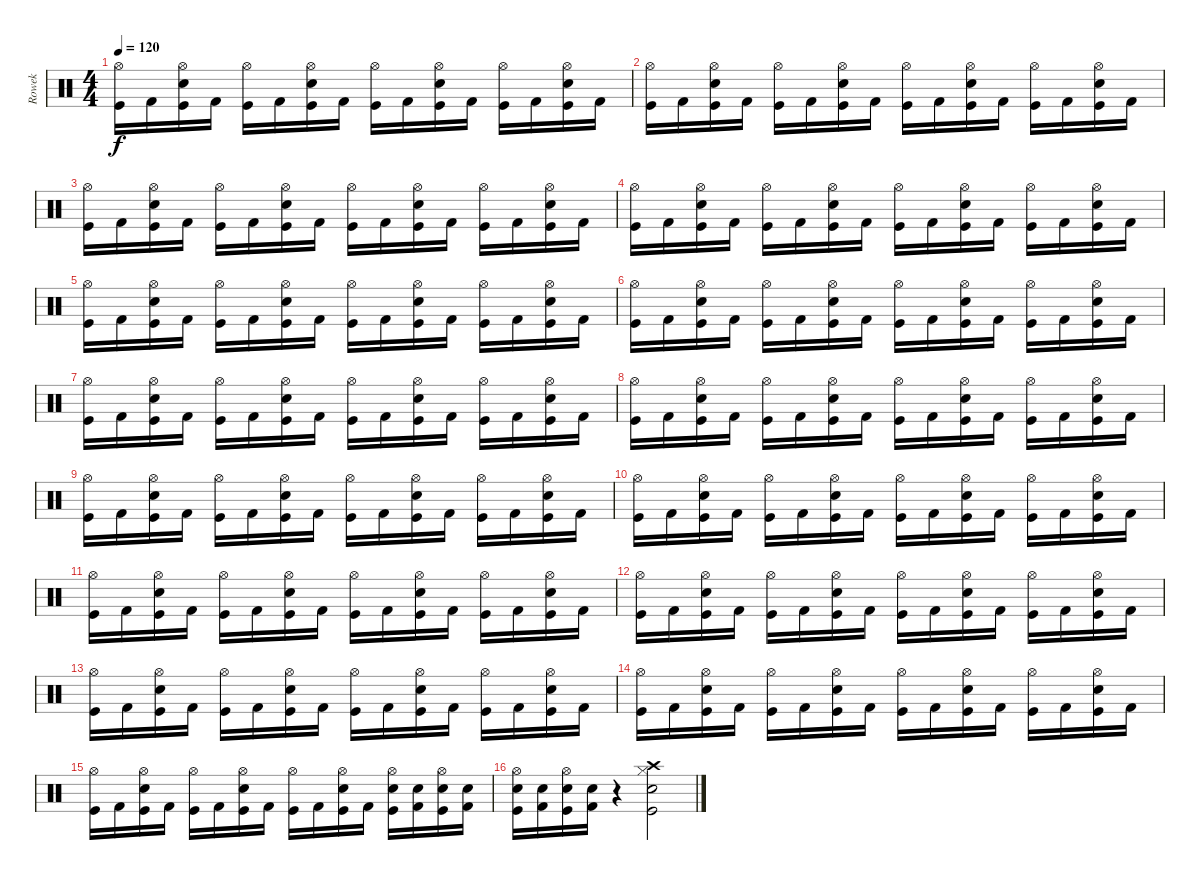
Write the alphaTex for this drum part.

\track ("Rowek" "Rowek") {instrument percussion}
\staff {score}
\articulation defaults
\ts (4 4)
\tempo 120
\clef neutral
\ks c
("Hi-Hat (open)" "Kick (hit)").16{dy f} "Kick (hit) 2".16 ("Hi-Hat (open)" "Snare (hit) 2" "Kick (hit)").16 "Kick (hit) 2".16 ("Hi-Hat (open)" "Kick (hit)").16 "Kick (hit) 2".16 ("Hi-Hat (open)" "Snare (hit) 2" "Kick (hit)").16 "Kick (hit) 2".16 ("Hi-Hat (open)" "Kick (hit)").16 "Kick (hit) 2".16 ("Hi-Hat (open)" "Snare (hit) 2" "Kick (hit)").16 "Kick (hit) 2".16 ("Hi-Hat (open)" "Kick (hit)").16 "Kick (hit) 2".16 ("Hi-Hat (open)" "Snare (hit) 2" "Kick (hit)").16 "Kick (hit) 2".16 |
("Hi-Hat (open)" "Kick (hit)").16 "Kick (hit) 2".16 ("Hi-Hat (open)" "Snare (hit) 2" "Kick (hit)").16 "Kick (hit) 2".16 ("Hi-Hat (open)" "Kick (hit)").16 "Kick (hit) 2".16 ("Hi-Hat (open)" "Snare (hit) 2" "Kick (hit)").16 "Kick (hit) 2".16 ("Hi-Hat (open)" "Kick (hit)").16 "Kick (hit) 2".16 ("Hi-Hat (open)" "Snare (hit) 2" "Kick (hit)").16 "Kick (hit) 2".16 ("Hi-Hat (open)" "Kick (hit)").16 "Kick (hit) 2".16 ("Hi-Hat (open)" "Snare (hit) 2" "Kick (hit)").16 "Kick (hit) 2".16 |
("Hi-Hat (open)" "Kick (hit)").16 "Kick (hit) 2".16 ("Hi-Hat (open)" "Snare (hit) 2" "Kick (hit)").16 "Kick (hit) 2".16 ("Hi-Hat (open)" "Kick (hit)").16 "Kick (hit) 2".16 ("Hi-Hat (open)" "Snare (hit) 2" "Kick (hit)").16 "Kick (hit) 2".16 ("Hi-Hat (open)" "Kick (hit)").16 "Kick (hit) 2".16 ("Hi-Hat (open)" "Snare (hit) 2" "Kick (hit)").16 "Kick (hit) 2".16 ("Hi-Hat (open)" "Kick (hit)").16 "Kick (hit) 2".16 ("Hi-Hat (open)" "Snare (hit) 2" "Kick (hit)").16 "Kick (hit) 2".16 |
("Hi-Hat (open)" "Kick (hit)").16 "Kick (hit) 2".16 ("Hi-Hat (open)" "Snare (hit) 2" "Kick (hit)").16 "Kick (hit) 2".16 ("Hi-Hat (open)" "Kick (hit)").16 "Kick (hit) 2".16 ("Hi-Hat (open)" "Snare (hit) 2" "Kick (hit)").16 "Kick (hit) 2".16 ("Hi-Hat (open)" "Kick (hit)").16 "Kick (hit) 2".16 ("Hi-Hat (open)" "Snare (hit) 2" "Kick (hit)").16 "Kick (hit) 2".16 ("Hi-Hat (open)" "Kick (hit)").16 "Kick (hit) 2".16 ("Hi-Hat (open)" "Snare (hit) 2" "Kick (hit)").16 "Kick (hit) 2".16 |
("Hi-Hat (open)" "Kick (hit)").16 "Kick (hit) 2".16 ("Hi-Hat (open)" "Snare (hit) 2" "Kick (hit)").16 "Kick (hit) 2".16 ("Hi-Hat (open)" "Kick (hit)").16 "Kick (hit) 2".16 ("Hi-Hat (open)" "Snare (hit) 2" "Kick (hit)").16 "Kick (hit) 2".16 ("Hi-Hat (open)" "Kick (hit)").16 "Kick (hit) 2".16 ("Hi-Hat (open)" "Snare (hit) 2" "Kick (hit)").16 "Kick (hit) 2".16 ("Hi-Hat (open)" "Kick (hit)").16 "Kick (hit) 2".16 ("Hi-Hat (open)" "Snare (hit) 2" "Kick (hit)").16 "Kick (hit) 2".16 |
("Hi-Hat (open)" "Kick (hit)").16 "Kick (hit) 2".16 ("Hi-Hat (open)" "Snare (hit) 2" "Kick (hit)").16 "Kick (hit) 2".16 ("Hi-Hat (open)" "Kick (hit)").16 "Kick (hit) 2".16 ("Hi-Hat (open)" "Snare (hit) 2" "Kick (hit)").16 "Kick (hit) 2".16 ("Hi-Hat (open)" "Kick (hit)").16 "Kick (hit) 2".16 ("Hi-Hat (open)" "Snare (hit) 2" "Kick (hit)").16 "Kick (hit) 2".16 ("Hi-Hat (open)" "Kick (hit)").16 "Kick (hit) 2".16 ("Hi-Hat (open)" "Snare (hit) 2" "Kick (hit)").16 "Kick (hit) 2".16 |
("Hi-Hat (open)" "Kick (hit)").16 "Kick (hit) 2".16 ("Hi-Hat (open)" "Snare (hit) 2" "Kick (hit)").16 "Kick (hit) 2".16 ("Hi-Hat (open)" "Kick (hit)").16 "Kick (hit) 2".16 ("Hi-Hat (open)" "Snare (hit) 2" "Kick (hit)").16 "Kick (hit) 2".16 ("Hi-Hat (open)" "Kick (hit)").16 "Kick (hit) 2".16 ("Hi-Hat (open)" "Snare (hit) 2" "Kick (hit)").16 "Kick (hit) 2".16 ("Hi-Hat (open)" "Kick (hit)").16 "Kick (hit) 2".16 ("Hi-Hat (open)" "Snare (hit) 2" "Kick (hit)").16 "Kick (hit) 2".16 |
("Hi-Hat (open)" "Kick (hit)").16 "Kick (hit) 2".16 ("Hi-Hat (open)" "Snare (hit) 2" "Kick (hit)").16 "Kick (hit) 2".16 ("Hi-Hat (open)" "Kick (hit)").16 "Kick (hit) 2".16 ("Hi-Hat (open)" "Snare (hit) 2" "Kick (hit)").16 "Kick (hit) 2".16 ("Hi-Hat (open)" "Kick (hit)").16 "Kick (hit) 2".16 ("Hi-Hat (open)" "Snare (hit) 2" "Kick (hit)").16 "Kick (hit) 2".16 ("Hi-Hat (open)" "Kick (hit)").16 "Kick (hit) 2".16 ("Hi-Hat (open)" "Snare (hit) 2" "Kick (hit)").16 "Kick (hit) 2".16 |
("Hi-Hat (open)" "Kick (hit)").16 "Kick (hit) 2".16 ("Hi-Hat (open)" "Snare (hit) 2" "Kick (hit)").16 "Kick (hit) 2".16 ("Hi-Hat (open)" "Kick (hit)").16 "Kick (hit) 2".16 ("Hi-Hat (open)" "Snare (hit) 2" "Kick (hit)").16 "Kick (hit) 2".16 ("Hi-Hat (open)" "Kick (hit)").16 "Kick (hit) 2".16 ("Hi-Hat (open)" "Snare (hit) 2" "Kick (hit)").16 "Kick (hit) 2".16 ("Hi-Hat (open)" "Kick (hit)").16 "Kick (hit) 2".16 ("Hi-Hat (open)" "Snare (hit) 2" "Kick (hit)").16 "Kick (hit) 2".16 |
("Hi-Hat (open)" "Kick (hit)").16 "Kick (hit) 2".16 ("Hi-Hat (open)" "Snare (hit) 2" "Kick (hit)").16 "Kick (hit) 2".16 ("Hi-Hat (open)" "Kick (hit)").16 "Kick (hit) 2".16 ("Hi-Hat (open)" "Snare (hit) 2" "Kick (hit)").16 "Kick (hit) 2".16 ("Hi-Hat (open)" "Kick (hit)").16 "Kick (hit) 2".16 ("Hi-Hat (open)" "Snare (hit) 2" "Kick (hit)").16 "Kick (hit) 2".16 ("Hi-Hat (open)" "Kick (hit)").16 "Kick (hit) 2".16 ("Hi-Hat (open)" "Snare (hit) 2" "Kick (hit)").16 "Kick (hit) 2".16 |
("Hi-Hat (open)" "Kick (hit)").16 "Kick (hit) 2".16 ("Hi-Hat (open)" "Snare (hit) 2" "Kick (hit)").16 "Kick (hit) 2".16 ("Hi-Hat (open)" "Kick (hit)").16 "Kick (hit) 2".16 ("Hi-Hat (open)" "Snare (hit) 2" "Kick (hit)").16 "Kick (hit) 2".16 ("Hi-Hat (open)" "Kick (hit)").16 "Kick (hit) 2".16 ("Hi-Hat (open)" "Snare (hit) 2" "Kick (hit)").16 "Kick (hit) 2".16 ("Hi-Hat (open)" "Kick (hit)").16 "Kick (hit) 2".16 ("Hi-Hat (open)" "Snare (hit) 2" "Kick (hit)").16 "Kick (hit) 2".16 |
("Hi-Hat (open)" "Kick (hit)").16 "Kick (hit) 2".16 ("Hi-Hat (open)" "Snare (hit) 2" "Kick (hit)").16 "Kick (hit) 2".16 ("Hi-Hat (open)" "Kick (hit)").16 "Kick (hit) 2".16 ("Hi-Hat (open)" "Snare (hit) 2" "Kick (hit)").16 "Kick (hit) 2".16 ("Hi-Hat (open)" "Kick (hit)").16 "Kick (hit) 2".16 ("Hi-Hat (open)" "Snare (hit) 2" "Kick (hit)").16 "Kick (hit) 2".16 ("Hi-Hat (open)" "Kick (hit)").16 "Kick (hit) 2".16 ("Hi-Hat (open)" "Snare (hit) 2" "Kick (hit)").16 "Kick (hit) 2".16 |
("Hi-Hat (open)" "Kick (hit)").16 "Kick (hit) 2".16 ("Hi-Hat (open)" "Snare (hit) 2" "Kick (hit)").16 "Kick (hit) 2".16 ("Hi-Hat (open)" "Kick (hit)").16 "Kick (hit) 2".16 ("Hi-Hat (open)" "Snare (hit) 2" "Kick (hit)").16 "Kick (hit) 2".16 ("Hi-Hat (open)" "Kick (hit)").16 "Kick (hit) 2".16 ("Hi-Hat (open)" "Snare (hit) 2" "Kick (hit)").16 "Kick (hit) 2".16 ("Hi-Hat (open)" "Kick (hit)").16 "Kick (hit) 2".16 ("Hi-Hat (open)" "Snare (hit) 2" "Kick (hit)").16 "Kick (hit) 2".16 |
("Hi-Hat (open)" "Kick (hit)").16 "Kick (hit) 2".16 ("Hi-Hat (open)" "Snare (hit) 2" "Kick (hit)").16 "Kick (hit) 2".16 ("Hi-Hat (open)" "Kick (hit)").16 "Kick (hit) 2".16 ("Hi-Hat (open)" "Snare (hit) 2" "Kick (hit)").16 "Kick (hit) 2".16 ("Hi-Hat (open)" "Kick (hit)").16 "Kick (hit) 2".16 ("Hi-Hat (open)" "Snare (hit) 2" "Kick (hit)").16 "Kick (hit) 2".16 ("Hi-Hat (open)" "Kick (hit)").16 "Kick (hit) 2".16 ("Hi-Hat (open)" "Snare (hit) 2" "Kick (hit)").16 "Kick (hit) 2".16 |
("Hi-Hat (open)" "Kick (hit)").16 "Kick (hit) 2".16 ("Hi-Hat (open)" "Snare (hit) 2" "Kick (hit)").16 "Kick (hit) 2".16 ("Hi-Hat (open)" "Kick (hit)").16 "Kick (hit) 2".16 ("Hi-Hat (open)" "Snare (hit) 2" "Kick (hit)").16 "Kick (hit) 2".16 ("Hi-Hat (open)" "Kick (hit)").16 "Kick (hit) 2".16 ("Hi-Hat (open)" "Snare (hit) 2" "Kick (hit)").16 "Kick (hit) 2".16 ("Hi-Hat (open)" "Snare (hit) 2" "Kick (hit)").16 ("Snare (hit) 2" "Kick (hit) 2").16 ("Hi-Hat (open)" "Snare (hit) 2" "Kick (hit)").16 ("Snare (hit) 2" "Kick (hit) 2").16 |
("Hi-Hat (open)" "Snare (hit) 2" "Kick (hit)").16 ("Snare (hit) 2" "Kick (hit) 2").16 ("Hi-Hat (open)" "Snare (hit) 2" "Kick (hit)").16 ("Snare (hit) 2" "Kick (hit) 2").16 r.4 ("Hi-Hat (closed)" "Crash high (hit)" "Snare (hit) 2" "Kick (hit)").2
